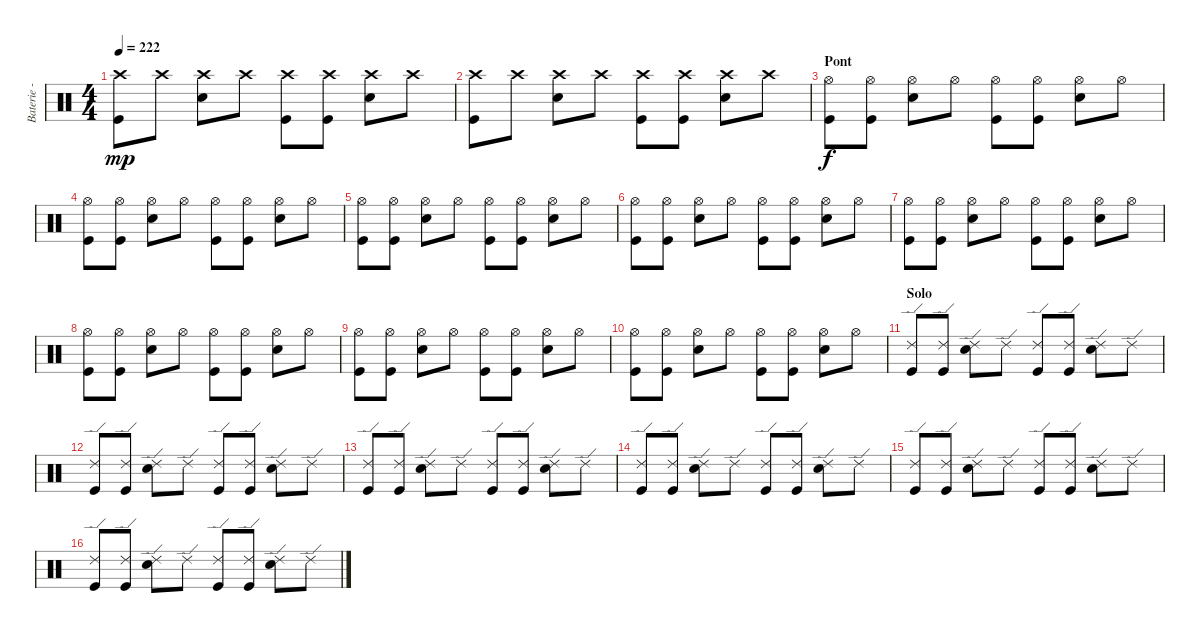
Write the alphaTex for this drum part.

\track ("Baterie - Guillaume" "Baterie - ") {instrument percussion}
\staff {score}
\articulation defaults
\ts (4 4)
\tempo 222
\clef neutral
\ks c
("Crash high (hit)" "Kick (hit)").8{dy mp} "Crash high (hit)".8 ("Crash high (hit)" "Snare (hit) 2").8 "Crash high (hit)".8 ("Crash high (hit)" "Kick (hit)").8 ("Crash high (hit)" "Kick (hit)").8 ("Crash high (hit)" "Snare (hit) 2").8 "Crash high (hit)".8 |
("Crash high (hit)" "Kick (hit)").8 "Crash high (hit)".8 ("Crash high (hit)" "Snare (hit) 2").8 "Crash high (hit)".8 ("Crash high (hit)" "Kick (hit)").8 ("Crash high (hit)" "Kick (hit)").8 ("Crash high (hit)" "Snare (hit) 2").8 "Crash high (hit)".8 |
\section ("" "Pont")
("Hi-Hat (open)" "Kick (hit)").8{dy f} ("Hi-Hat (open)" "Kick (hit)").8 ("Hi-Hat (open)" "Snare (hit) 2").8 "Hi-Hat (open)".8 ("Hi-Hat (open)" "Kick (hit)").8 ("Hi-Hat (open)" "Kick (hit)").8 ("Hi-Hat (open)" "Snare (hit) 2").8 "Hi-Hat (open)".8 |
("Hi-Hat (open)" "Kick (hit)").8 ("Hi-Hat (open)" "Kick (hit)").8 ("Hi-Hat (open)" "Snare (hit) 2").8 "Hi-Hat (open)".8 ("Hi-Hat (open)" "Kick (hit)").8 ("Hi-Hat (open)" "Kick (hit)").8 ("Hi-Hat (open)" "Snare (hit) 2").8 "Hi-Hat (open)".8 |
("Hi-Hat (open)" "Kick (hit)").8 ("Hi-Hat (open)" "Kick (hit)").8 ("Hi-Hat (open)" "Snare (hit) 2").8 "Hi-Hat (open)".8 ("Hi-Hat (open)" "Kick (hit)").8 ("Hi-Hat (open)" "Kick (hit)").8 ("Hi-Hat (open)" "Snare (hit) 2").8 "Hi-Hat (open)".8 |
("Hi-Hat (open)" "Kick (hit)").8 ("Hi-Hat (open)" "Kick (hit)").8 ("Hi-Hat (open)" "Snare (hit) 2").8 "Hi-Hat (open)".8 ("Hi-Hat (open)" "Kick (hit)").8 ("Hi-Hat (open)" "Kick (hit)").8 ("Hi-Hat (open)" "Snare (hit) 2").8 "Hi-Hat (open)".8 |
("Hi-Hat (open)" "Kick (hit)").8 ("Hi-Hat (open)" "Kick (hit)").8 ("Hi-Hat (open)" "Snare (hit) 2").8 "Hi-Hat (open)".8 ("Hi-Hat (open)" "Kick (hit)").8 ("Hi-Hat (open)" "Kick (hit)").8 ("Hi-Hat (open)" "Snare (hit) 2").8 "Hi-Hat (open)".8 |
("Hi-Hat (open)" "Kick (hit)").8 ("Hi-Hat (open)" "Kick (hit)").8 ("Hi-Hat (open)" "Snare (hit) 2").8 "Hi-Hat (open)".8 ("Hi-Hat (open)" "Kick (hit)").8 ("Hi-Hat (open)" "Kick (hit)").8 ("Hi-Hat (open)" "Snare (hit) 2").8 "Hi-Hat (open)".8 |
("Hi-Hat (open)" "Kick (hit)").8 ("Hi-Hat (open)" "Kick (hit)").8 ("Hi-Hat (open)" "Snare (hit) 2").8 "Hi-Hat (open)".8 ("Hi-Hat (open)" "Kick (hit)").8 ("Hi-Hat (open)" "Kick (hit)").8 ("Hi-Hat (open)" "Snare (hit) 2").8 "Hi-Hat (open)".8 |
("Hi-Hat (open)" "Kick (hit)").8 ("Hi-Hat (open)" "Kick (hit)").8 ("Hi-Hat (open)" "Snare (hit) 2").8 "Hi-Hat (open)".8 ("Hi-Hat (open)" "Kick (hit)").8 ("Hi-Hat (open)" "Kick (hit)").8 ("Hi-Hat (open)" "Snare (hit) 2").8 "Hi-Hat (open)".8 |
\section ("" "Solo")
("Ride (edge) 2" "Kick (hit)").8 ("Ride (edge) 2" "Kick (hit)").8 ("Ride (edge) 2" "Snare (hit) 2").8 "Ride (edge) 2".8 ("Ride (edge) 2" "Kick (hit)").8 ("Ride (edge) 2" "Kick (hit)").8 ("Ride (edge) 2" "Snare (hit) 2").8 "Ride (edge) 2".8 |
("Ride (edge) 2" "Kick (hit)").8 ("Ride (edge) 2" "Kick (hit)").8 ("Ride (edge) 2" "Snare (hit) 2").8 "Ride (edge) 2".8 ("Ride (edge) 2" "Kick (hit)").8 ("Ride (edge) 2" "Kick (hit)").8 ("Ride (edge) 2" "Snare (hit) 2").8 "Ride (edge) 2".8 |
("Ride (edge) 2" "Kick (hit)").8 ("Ride (edge) 2" "Kick (hit)").8 ("Ride (edge) 2" "Snare (hit) 2").8 "Ride (edge) 2".8 ("Ride (edge) 2" "Kick (hit)").8 ("Ride (edge) 2" "Kick (hit)").8 ("Ride (edge) 2" "Snare (hit) 2").8 "Ride (edge) 2".8 |
("Ride (edge) 2" "Kick (hit)").8 ("Ride (edge) 2" "Kick (hit)").8 ("Ride (edge) 2" "Snare (hit) 2").8 "Ride (edge) 2".8 ("Ride (edge) 2" "Kick (hit)").8 ("Ride (edge) 2" "Kick (hit)").8 ("Ride (edge) 2" "Snare (hit) 2").8 "Ride (edge) 2".8 |
("Ride (edge) 2" "Kick (hit)").8 ("Ride (edge) 2" "Kick (hit)").8 ("Ride (edge) 2" "Snare (hit) 2").8 "Ride (edge) 2".8 ("Ride (edge) 2" "Kick (hit)").8 ("Ride (edge) 2" "Kick (hit)").8 ("Ride (edge) 2" "Snare (hit) 2").8 "Ride (edge) 2".8 |
("Ride (edge) 2" "Kick (hit)").8 ("Ride (edge) 2" "Kick (hit)").8 ("Ride (edge) 2" "Snare (hit) 2").8 "Ride (edge) 2".8 ("Ride (edge) 2" "Kick (hit)").8 ("Ride (edge) 2" "Kick (hit)").8 ("Ride (edge) 2" "Snare (hit) 2").8 "Ride (edge) 2".8
